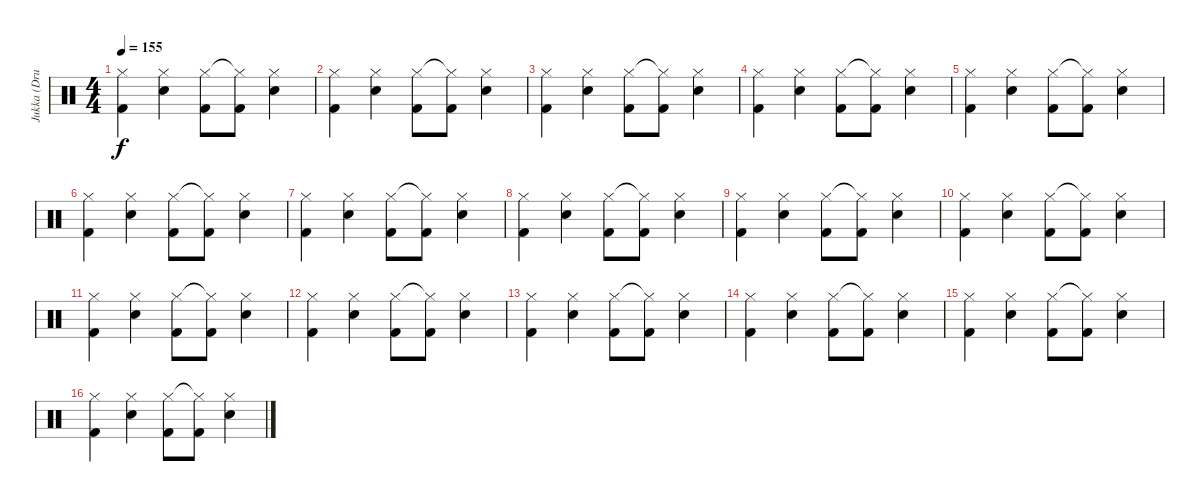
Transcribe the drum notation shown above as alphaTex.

\track ("Jukka (Drums)" "Jukka (Dru") {instrument percussion}
\staff {score}
\articulation defaults
\ts (4 4)
\tempo 155
\clef neutral
\ks c
("Hi-Hat (closed)" "Kick (hit) 2").4{dy f} ("Hi-Hat (closed)" "Snare (hit) 2").4 ("Hi-Hat (closed)" "Kick (hit) 2").8 ("Hi-Hat (closed)"{t} "Kick (hit) 2").8 ("Hi-Hat (closed)" "Snare (hit) 2").4 |
("Hi-Hat (closed)" "Kick (hit) 2").4 ("Hi-Hat (closed)" "Snare (hit) 2").4 ("Hi-Hat (closed)" "Kick (hit) 2").8 ("Hi-Hat (closed)"{t} "Kick (hit) 2").8 ("Hi-Hat (closed)" "Snare (hit) 2").4 |
("Hi-Hat (closed)" "Kick (hit) 2").4 ("Hi-Hat (closed)" "Snare (hit) 2").4 ("Hi-Hat (closed)" "Kick (hit) 2").8 ("Hi-Hat (closed)"{t} "Kick (hit) 2").8 ("Hi-Hat (closed)" "Snare (hit) 2").4 |
("Hi-Hat (closed)" "Kick (hit) 2").4 ("Hi-Hat (closed)" "Snare (hit) 2").4 ("Hi-Hat (closed)" "Kick (hit) 2").8 ("Hi-Hat (closed)"{t} "Kick (hit) 2").8 ("Hi-Hat (closed)" "Snare (hit) 2").4 |
("Hi-Hat (closed)" "Kick (hit) 2").4 ("Hi-Hat (closed)" "Snare (hit) 2").4 ("Hi-Hat (closed)" "Kick (hit) 2").8 ("Hi-Hat (closed)"{t} "Kick (hit) 2").8 ("Hi-Hat (closed)" "Snare (hit) 2").4 |
("Hi-Hat (closed)" "Kick (hit) 2").4 ("Hi-Hat (closed)" "Snare (hit) 2").4 ("Hi-Hat (closed)" "Kick (hit) 2").8 ("Hi-Hat (closed)"{t} "Kick (hit) 2").8 ("Hi-Hat (closed)" "Snare (hit) 2").4 |
("Hi-Hat (closed)" "Kick (hit) 2").4 ("Hi-Hat (closed)" "Snare (hit) 2").4 ("Hi-Hat (closed)" "Kick (hit) 2").8 ("Hi-Hat (closed)"{t} "Kick (hit) 2").8 ("Hi-Hat (closed)" "Snare (hit) 2").4 |
("Hi-Hat (closed)" "Kick (hit) 2").4 ("Hi-Hat (closed)" "Snare (hit) 2").4 ("Hi-Hat (closed)" "Kick (hit) 2").8 ("Hi-Hat (closed)"{t} "Kick (hit) 2").8 ("Hi-Hat (closed)" "Snare (hit) 2").4 |
("Hi-Hat (closed)" "Kick (hit) 2").4 ("Hi-Hat (closed)" "Snare (hit) 2").4 ("Hi-Hat (closed)" "Kick (hit) 2").8 ("Hi-Hat (closed)"{t} "Kick (hit) 2").8 ("Hi-Hat (closed)" "Snare (hit) 2").4 |
("Hi-Hat (closed)" "Kick (hit) 2").4 ("Hi-Hat (closed)" "Snare (hit) 2").4 ("Hi-Hat (closed)" "Kick (hit) 2").8 ("Hi-Hat (closed)"{t} "Kick (hit) 2").8 ("Hi-Hat (closed)" "Snare (hit) 2").4 |
("Hi-Hat (closed)" "Kick (hit) 2").4 ("Hi-Hat (closed)" "Snare (hit) 2").4 ("Hi-Hat (closed)" "Kick (hit) 2").8 ("Hi-Hat (closed)"{t} "Kick (hit) 2").8 ("Hi-Hat (closed)" "Snare (hit) 2").4 |
("Hi-Hat (closed)" "Kick (hit) 2").4 ("Hi-Hat (closed)" "Snare (hit) 2").4 ("Hi-Hat (closed)" "Kick (hit) 2").8 ("Hi-Hat (closed)"{t} "Kick (hit) 2").8 ("Hi-Hat (closed)" "Snare (hit) 2").4 |
("Hi-Hat (closed)" "Kick (hit) 2").4 ("Hi-Hat (closed)" "Snare (hit) 2").4 ("Hi-Hat (closed)" "Kick (hit) 2").8 ("Hi-Hat (closed)"{t} "Kick (hit) 2").8 ("Hi-Hat (closed)" "Snare (hit) 2").4 |
("Hi-Hat (closed)" "Kick (hit) 2").4 ("Hi-Hat (closed)" "Snare (hit) 2").4 ("Hi-Hat (closed)" "Kick (hit) 2").8 ("Hi-Hat (closed)"{t} "Kick (hit) 2").8 ("Hi-Hat (closed)" "Snare (hit) 2").4 |
("Hi-Hat (closed)" "Kick (hit) 2").4 ("Hi-Hat (closed)" "Snare (hit) 2").4 ("Hi-Hat (closed)" "Kick (hit) 2").8 ("Hi-Hat (closed)"{t} "Kick (hit) 2").8 ("Hi-Hat (closed)" "Snare (hit) 2").4 |
("Hi-Hat (closed)" "Kick (hit) 2").4 ("Hi-Hat (closed)" "Snare (hit) 2").4 ("Hi-Hat (closed)" "Kick (hit) 2").8 ("Hi-Hat (closed)"{t} "Kick (hit) 2").8 ("Hi-Hat (closed)" "Snare (hit) 2").4
